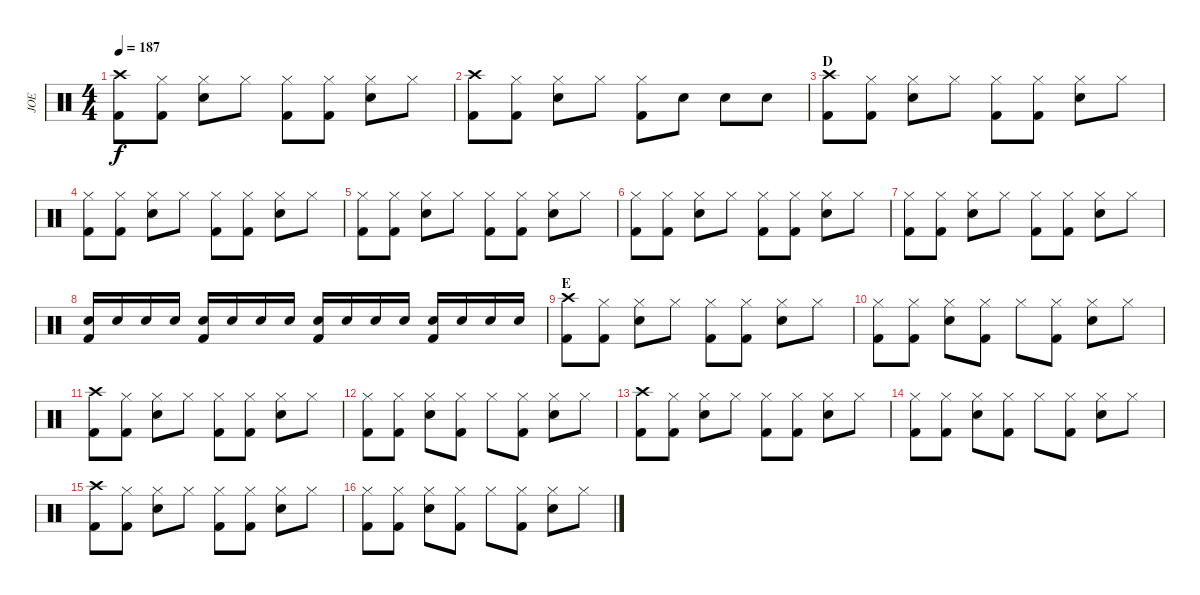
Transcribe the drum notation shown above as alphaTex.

\track ("JOE" "JOE") {instrument percussion}
\staff {score}
\articulation defaults
\ts (4 4)
\tempo 187
\clef neutral
\ks c
("Crash high (hit)" "Kick (hit) 2").8{dy f} ("Hi-Hat (closed)" "Kick (hit) 2").8 ("Hi-Hat (closed)" "Snare (hit) 2").8 "Hi-Hat (closed)".8 ("Hi-Hat (closed)" "Kick (hit) 2").8 ("Hi-Hat (closed)" "Kick (hit) 2").8 ("Hi-Hat (closed)" "Snare (hit) 2").8 "Hi-Hat (closed)".8 |
("Crash high (hit)" "Kick (hit) 2").8 ("Hi-Hat (closed)" "Kick (hit) 2").8 ("Hi-Hat (closed)" "Snare (hit) 2").8 "Hi-Hat (closed)".8 ("Hi-Hat (closed)" "Kick (hit) 2").8 "Snare (hit) 2".8 "Snare (hit) 2".8 "Snare (hit) 2".8 |
\section ("" "D")
("Crash high (hit)" "Kick (hit) 2").8 ("Hi-Hat (closed)" "Kick (hit) 2").8 ("Hi-Hat (closed)" "Snare (hit) 2").8 "Hi-Hat (closed)".8 ("Hi-Hat (closed)" "Kick (hit) 2").8 ("Hi-Hat (closed)" "Kick (hit) 2").8 ("Hi-Hat (closed)" "Snare (hit) 2").8 "Hi-Hat (closed)".8 |
("Hi-Hat (closed)" "Kick (hit) 2").8 ("Hi-Hat (closed)" "Kick (hit) 2").8 ("Hi-Hat (closed)" "Snare (hit) 2").8 "Hi-Hat (closed)".8 ("Hi-Hat (closed)" "Kick (hit) 2").8 ("Hi-Hat (closed)" "Kick (hit) 2").8 ("Hi-Hat (closed)" "Snare (hit) 2").8 "Hi-Hat (closed)".8 |
("Hi-Hat (closed)" "Kick (hit) 2").8 ("Hi-Hat (closed)" "Kick (hit) 2").8 ("Hi-Hat (closed)" "Snare (hit) 2").8 "Hi-Hat (closed)".8 ("Hi-Hat (closed)" "Kick (hit) 2").8 ("Hi-Hat (closed)" "Kick (hit) 2").8 ("Hi-Hat (closed)" "Snare (hit) 2").8 "Hi-Hat (closed)".8 |
("Hi-Hat (closed)" "Kick (hit) 2").8 ("Hi-Hat (closed)" "Kick (hit) 2").8 ("Hi-Hat (closed)" "Snare (hit) 2").8 "Hi-Hat (closed)".8 ("Hi-Hat (closed)" "Kick (hit) 2").8 ("Hi-Hat (closed)" "Kick (hit) 2").8 ("Hi-Hat (closed)" "Snare (hit) 2").8 "Hi-Hat (closed)".8 |
("Hi-Hat (closed)" "Kick (hit) 2").8 ("Hi-Hat (closed)" "Kick (hit) 2").8 ("Hi-Hat (closed)" "Snare (hit) 2").8 "Hi-Hat (closed)".8 ("Hi-Hat (closed)" "Kick (hit) 2").8 ("Hi-Hat (closed)" "Kick (hit) 2").8 ("Hi-Hat (closed)" "Snare (hit) 2").8 "Hi-Hat (closed)".8 |
("Snare (hit) 2" "Kick (hit) 2").16 "Snare (hit) 2".16 "Snare (hit) 2".16 "Snare (hit) 2".16 ("Snare (hit) 2" "Kick (hit) 2").16 "Snare (hit) 2".16 "Snare (hit) 2".16 "Snare (hit) 2".16 ("Snare (hit) 2" "Kick (hit) 2").16 "Snare (hit) 2".16 "Snare (hit) 2".16 "Snare (hit) 2".16 ("Snare (hit) 2" "Kick (hit) 2").16 "Snare (hit) 2".16 "Snare (hit) 2".16 "Snare (hit) 2".16 |
\section ("" "E")
("Crash high (hit)" "Kick (hit) 2").8 ("Hi-Hat (closed)" "Kick (hit) 2").8 ("Hi-Hat (closed)" "Snare (hit) 2").8 "Hi-Hat (closed)".8 ("Hi-Hat (closed)" "Kick (hit) 2").8 ("Hi-Hat (closed)" "Kick (hit) 2").8 ("Hi-Hat (closed)" "Snare (hit) 2").8 "Hi-Hat (closed)".8 |
("Hi-Hat (closed)" "Kick (hit) 2").8 ("Hi-Hat (closed)" "Kick (hit) 2").8 ("Hi-Hat (closed)" "Snare (hit) 2").8 ("Hi-Hat (closed)" "Kick (hit) 2").8 "Hi-Hat (closed)".8 ("Hi-Hat (closed)" "Kick (hit) 2").8 ("Hi-Hat (closed)" "Snare (hit) 2").8 "Hi-Hat (closed)".8 |
("Crash high (hit)" "Kick (hit) 2").8 ("Hi-Hat (closed)" "Kick (hit) 2").8 ("Hi-Hat (closed)" "Snare (hit) 2").8 "Hi-Hat (closed)".8 ("Hi-Hat (closed)" "Kick (hit) 2").8 ("Hi-Hat (closed)" "Kick (hit) 2").8 ("Hi-Hat (closed)" "Snare (hit) 2").8 "Hi-Hat (closed)".8 |
("Hi-Hat (closed)" "Kick (hit) 2").8 ("Hi-Hat (closed)" "Kick (hit) 2").8 ("Hi-Hat (closed)" "Snare (hit) 2").8 ("Hi-Hat (closed)" "Kick (hit) 2").8 "Hi-Hat (closed)".8 ("Hi-Hat (closed)" "Kick (hit) 2").8 ("Hi-Hat (closed)" "Snare (hit) 2").8 "Hi-Hat (closed)".8 |
("Crash high (hit)" "Kick (hit) 2").8 ("Hi-Hat (closed)" "Kick (hit) 2").8 ("Hi-Hat (closed)" "Snare (hit) 2").8 "Hi-Hat (closed)".8 ("Hi-Hat (closed)" "Kick (hit) 2").8 ("Hi-Hat (closed)" "Kick (hit) 2").8 ("Hi-Hat (closed)" "Snare (hit) 2").8 "Hi-Hat (closed)".8 |
("Hi-Hat (closed)" "Kick (hit) 2").8 ("Hi-Hat (closed)" "Kick (hit) 2").8 ("Hi-Hat (closed)" "Snare (hit) 2").8 ("Hi-Hat (closed)" "Kick (hit) 2").8 "Hi-Hat (closed)".8 ("Hi-Hat (closed)" "Kick (hit) 2").8 ("Hi-Hat (closed)" "Snare (hit) 2").8 "Hi-Hat (closed)".8 |
("Crash high (hit)" "Kick (hit) 2").8 ("Hi-Hat (closed)" "Kick (hit) 2").8 ("Hi-Hat (closed)" "Snare (hit) 2").8 "Hi-Hat (closed)".8 ("Hi-Hat (closed)" "Kick (hit) 2").8 ("Hi-Hat (closed)" "Kick (hit) 2").8 ("Hi-Hat (closed)" "Snare (hit) 2").8 "Hi-Hat (closed)".8 |
("Hi-Hat (closed)" "Kick (hit) 2").8 ("Hi-Hat (closed)" "Kick (hit) 2").8 ("Hi-Hat (closed)" "Snare (hit) 2").8 ("Hi-Hat (closed)" "Kick (hit) 2").8 "Hi-Hat (closed)".8 ("Hi-Hat (closed)" "Kick (hit) 2").8 ("Hi-Hat (closed)" "Snare (hit) 2").8 "Hi-Hat (closed)".8
